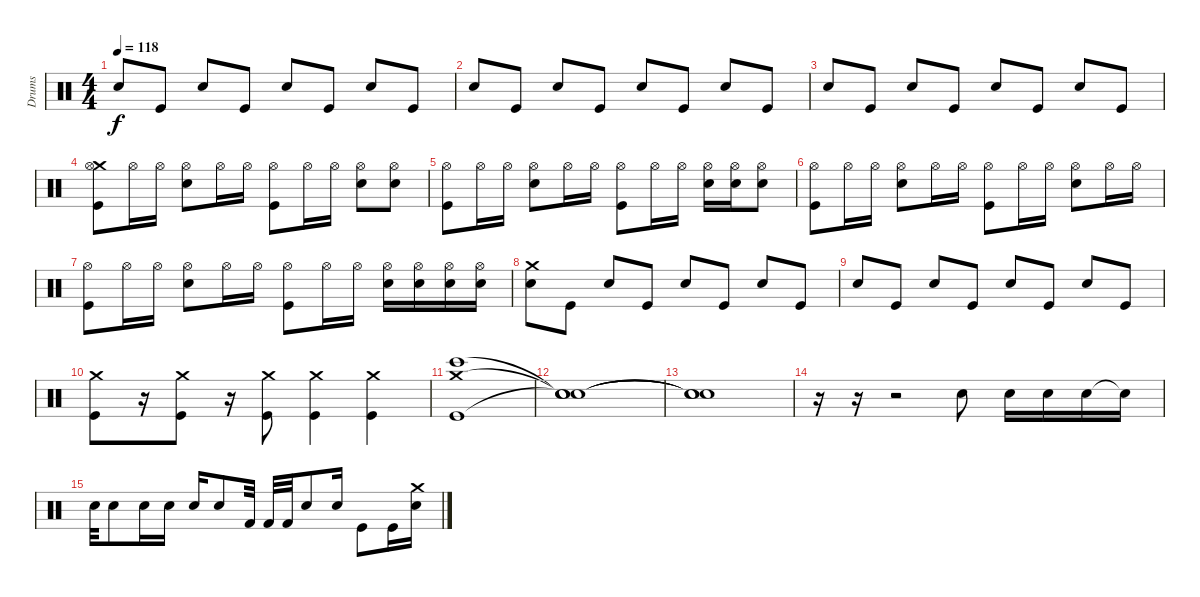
\track ("Drums" "Drums") {instrument percussion}
\staff {score}
\articulation defaults
\ts (4 4)
\tempo 118
\clef neutral
\ks c "Snare (hit) 2".8{dy f} "Kick (hit)".8 "Snare (hit) 2".8 "Kick (hit)".8 "Snare (hit) 2".8 "Kick (hit)".8 "Snare (hit) 2".8 "Kick (hit)".8
|
"Snare (hit) 2".8 "Kick (hit)".8 "Snare (hit) 2".8 "Kick (hit)".8 "Snare (hit) 2".8 "Kick (hit)".8 "Snare (hit) 2".8 "Kick (hit)".8 |
"Snare (hit) 2".8 "Kick (hit)".8 "Snare (hit) 2".8 "Kick (hit)".8 "Snare (hit) 2".8 "Kick (hit)".8 "Snare (hit) 2".8 "Kick (hit)".8 |
("Crash medium (hit)" "Hi-Hat (open)" "Kick (hit)").8 "Hi-Hat (open)".16 "Hi-Hat (open)".16 ("Hi-Hat (open)" "Snare (hit) 2").8 "Hi-Hat (open)".16 "Hi-Hat (open)".16 ("Hi-Hat (open)" "Kick (hit)").8 "Hi-Hat (open)".16 "Hi-Hat (open)".16 ("Snare (hit) 2" "Hi-Hat (open)").8 ("Snare (hit) 2" "Hi-Hat (open)").8 |
("Hi-Hat (open)" "Kick (hit)").8 "Hi-Hat (open)".16 "Hi-Hat (open)".16 ("Hi-Hat (open)" "Snare (hit) 2").8 "Hi-Hat (open)".16 "Hi-Hat (open)".16 ("Hi-Hat (open)" "Kick (hit)").8 "Hi-Hat (open)".16 "Hi-Hat (open)".16 ("Snare (hit) 2" "Hi-Hat (open)").16 ("Snare (hit) 2" "Hi-Hat (open)").16 ("Snare (hit) 2" "Hi-Hat (open)").8 |
("Hi-Hat (open)" "Kick (hit)").8 "Hi-Hat (open)".16 "Hi-Hat (open)".16 ("Hi-Hat (open)" "Snare (hit) 2").8 "Hi-Hat (open)".16 "Hi-Hat (open)".16 ("Hi-Hat (open)" "Kick (hit)").8 "Hi-Hat (open)".16 "Hi-Hat (open)".16 ("Snare (hit) 2" "Hi-Hat (open)").8 "Hi-Hat (open)".16 "Hi-Hat (open)".16 |
("Hi-Hat (open)" "Kick (hit)").8 "Hi-Hat (open)".16 "Hi-Hat (open)".16 ("Hi-Hat (open)" "Snare (hit) 2").8 "Hi-Hat (open)".16 "Hi-Hat (open)".16 ("Hi-Hat (open)" "Kick (hit)").8 "Hi-Hat (open)".16 "Hi-Hat (open)".16 ("Snare (hit) 2" "Hi-Hat (open)").16 ("Snare (hit) 2" "Hi-Hat (open)").16 ("Snare (hit) 2" "Hi-Hat (open)").16 ("Snare (hit) 2" "Hi-Hat (open)").16 |
("Crash medium (hit)" "Snare (hit) 2").8 "Kick (hit)".8 "Snare (hit) 2".8 "Kick (hit)".8 "Snare (hit) 2".8 "Kick (hit)".8 "Snare (hit) 2".8 "Kick (hit)".8 |
"Snare (hit) 2".8 "Kick (hit)".8 "Snare (hit) 2".8 "Kick (hit)".8 "Snare (hit) 2".8 "Kick (hit)".8 "Snare (hit) 2".8 "Kick (hit)".8 |
("Crash medium (hit)" "Kick (hit)").8 r.16 ("Crash medium (hit)" "Kick (hit)").8 r.16 ("Crash medium (hit)" "Kick (hit)").8 ("Crash medium (hit)" "Kick (hit)").4 ("Crash medium (hit)" "Kick (hit)").4 |
("Kick (hit)" "Crash medium (hit)" "Bongo High (hit)").1 |
("Snare (hit)"{t} "Snare (hit)"{t} "Snare (hit)"{t}).1 |
("Snare (hit)"{t} "Snare (hit)"{t} "Snare (hit)"{t}).1 |
r.16 r.16 r.2 "Snare (hit) 2".8 "Snare (hit) 2".16 "Snare (hit) 2".16 "Snare (hit) 2".16 "Snare (hit)"{t}.16 |
"Snare (hit) 2".32 "Snare (hit) 2".8 "Electric Snare (hit)".16 "Electric Snare (hit)".16 "Electric Snare (hit)".16 "Electric Snare (hit)".8 "Kick (hit) 2".32 "Kick (hit) 2".32 "Kick (hit) 2".32 "Snare (hit) 2".8 "Snare (hit) 2".16 "Kick (hit)".8 "Kick (hit)".16 ("Crash medium (hit)" "Snare (hit) 2").16
